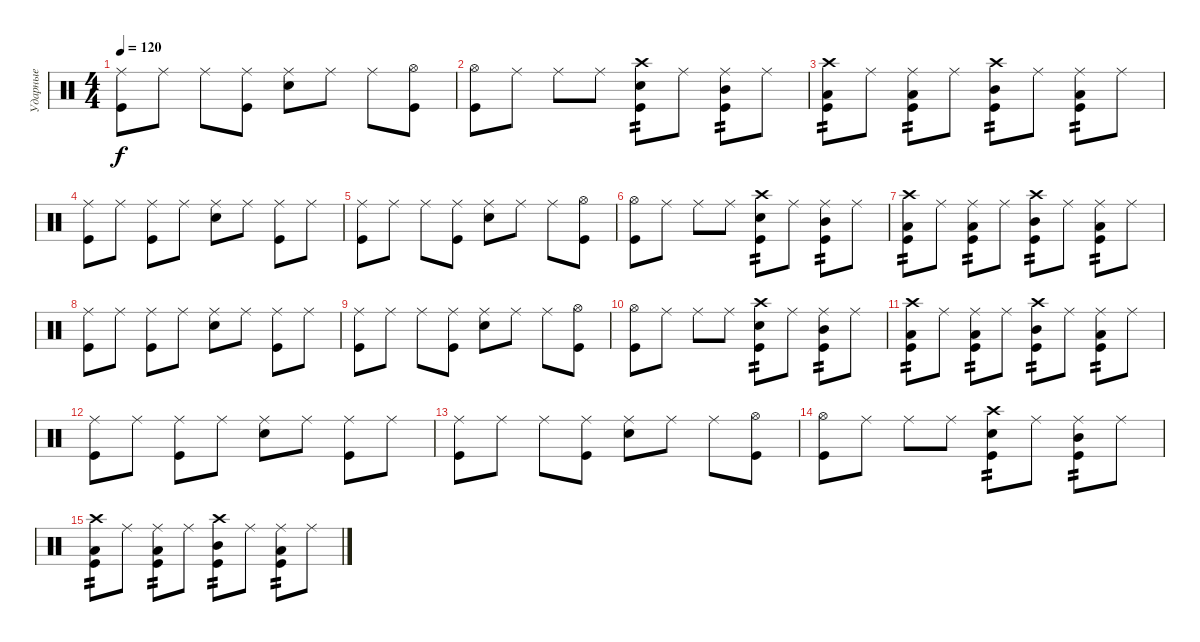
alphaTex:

\track ("Ударные" "Ударные") {instrument percussion}
\staff {score}
\articulation defaults
\ts (4 4)
\tempo 120
\clef neutral
\ks c
("Ride (middle)" "Kick (hit)").8{dy f} "Ride (middle)".8 "Ride (middle)".8 ("Ride (middle)" "Kick (hit)").8 ("Ride (middle)" "Snare (hit) 2").8 "Ride (middle)".8 "Ride (middle)".8 ("Hi-Hat (open)" "Kick (hit)").8 |
("Hi-Hat (open)" "Kick (hit)").8 "Ride (middle)".8 "Ride (middle)".8 "Ride (middle)".8 ("Crash high (hit)" "Kick (hit)" "Snare (hit) 2").8{tp 2} "Ride (middle)".8 ("Ride (middle)" "Kick (hit)" "Mid Tom (hit)").8{tp 2} "Ride (middle)".8 |
("Crash high (hit)" "Kick (hit)" "Low Tom (hit)").8{tp 2} "Ride (middle)".8 ("Ride (middle)" "Kick (hit)" "Low Tom (hit)").8{tp 2} "Ride (middle)".8 ("Crash high (hit)" "Kick (hit)" "Mid Tom (hit)").8{tp 2} "Ride (middle)".8 ("Ride (middle)" "Kick (hit)" "Low Tom (hit)").8{tp 2} "Ride (middle)".8 |
("Ride (middle)" "Kick (hit)").8{volume 8} "Ride (middle)".8 ("Ride (middle)" "Kick (hit)").8 "Ride (middle)".8 ("Ride (middle)" "Snare (hit) 2").8 "Ride (middle)".8 ("Ride (middle)" "Kick (hit)").8 "Ride (middle)".8 |
("Ride (middle)" "Kick (hit)").8 "Ride (middle)".8 "Ride (middle)".8 ("Ride (middle)" "Kick (hit)").8 ("Ride (middle)" "Snare (hit) 2").8 "Ride (middle)".8 "Ride (middle)".8 ("Hi-Hat (open)" "Kick (hit)").8 |
("Hi-Hat (open)" "Kick (hit)").8 "Ride (middle)".8 "Ride (middle)".8 "Ride (middle)".8 ("Crash high (hit)" "Kick (hit)" "Snare (hit) 2").8{tp 2} "Ride (middle)".8 ("Ride (middle)" "Kick (hit)" "Mid Tom (hit)").8{tp 2} "Ride (middle)".8 |
("Crash high (hit)" "Kick (hit)" "Low Tom (hit)").8{tp 2} "Ride (middle)".8 ("Ride (middle)" "Kick (hit)" "Low Tom (hit)").8{tp 2} "Ride (middle)".8 ("Crash high (hit)" "Kick (hit)" "Mid Tom (hit)").8{tp 2} "Ride (middle)".8 ("Ride (middle)" "Kick (hit)" "Low Tom (hit)").8{tp 2} "Ride (middle)".8 |
("Ride (middle)" "Kick (hit)").8{volume 8} "Ride (middle)".8 ("Ride (middle)" "Kick (hit)").8 "Ride (middle)".8 ("Ride (middle)" "Snare (hit) 2").8 "Ride (middle)".8 ("Ride (middle)" "Kick (hit)").8 "Ride (middle)".8 |
("Ride (middle)" "Kick (hit)").8 "Ride (middle)".8 "Ride (middle)".8 ("Ride (middle)" "Kick (hit)").8 ("Ride (middle)" "Snare (hit) 2").8 "Ride (middle)".8 "Ride (middle)".8 ("Hi-Hat (open)" "Kick (hit)").8 |
("Hi-Hat (open)" "Kick (hit)").8 "Ride (middle)".8 "Ride (middle)".8 "Ride (middle)".8 ("Crash high (hit)" "Kick (hit)" "Snare (hit) 2").8{tp 2} "Ride (middle)".8 ("Ride (middle)" "Kick (hit)" "Mid Tom (hit)").8{tp 2} "Ride (middle)".8 |
("Crash high (hit)" "Kick (hit)" "Low Tom (hit)").8{tp 2} "Ride (middle)".8 ("Ride (middle)" "Kick (hit)" "Low Tom (hit)").8{tp 2} "Ride (middle)".8 ("Crash high (hit)" "Kick (hit)" "Mid Tom (hit)").8{tp 2} "Ride (middle)".8 ("Ride (middle)" "Kick (hit)" "Low Tom (hit)").8{tp 2} "Ride (middle)".8 |
("Ride (middle)" "Kick (hit)").8{volume 8} "Ride (middle)".8 ("Ride (middle)" "Kick (hit)").8 "Ride (middle)".8 ("Ride (middle)" "Snare (hit) 2").8 "Ride (middle)".8 ("Ride (middle)" "Kick (hit)").8 "Ride (middle)".8 |
("Ride (middle)" "Kick (hit)").8 "Ride (middle)".8 "Ride (middle)".8 ("Ride (middle)" "Kick (hit)").8 ("Ride (middle)" "Snare (hit) 2").8 "Ride (middle)".8 "Ride (middle)".8 ("Hi-Hat (open)" "Kick (hit)").8 |
("Hi-Hat (open)" "Kick (hit)").8 "Ride (middle)".8 "Ride (middle)".8 "Ride (middle)".8 ("Crash high (hit)" "Kick (hit)" "Snare (hit) 2").8{tp 2} "Ride (middle)".8 ("Ride (middle)" "Kick (hit)" "Mid Tom (hit)").8{tp 2} "Ride (middle)".8 |
("Crash high (hit)" "Kick (hit)" "Low Tom (hit)").8{tp 2} "Ride (middle)".8 ("Ride (middle)" "Kick (hit)" "Low Tom (hit)").8{tp 2} "Ride (middle)".8 ("Crash high (hit)" "Kick (hit)" "Mid Tom (hit)").8{tp 2} "Ride (middle)".8 ("Ride (middle)" "Kick (hit)" "Low Tom (hit)").8{tp 2} "Ride (middle)".8
